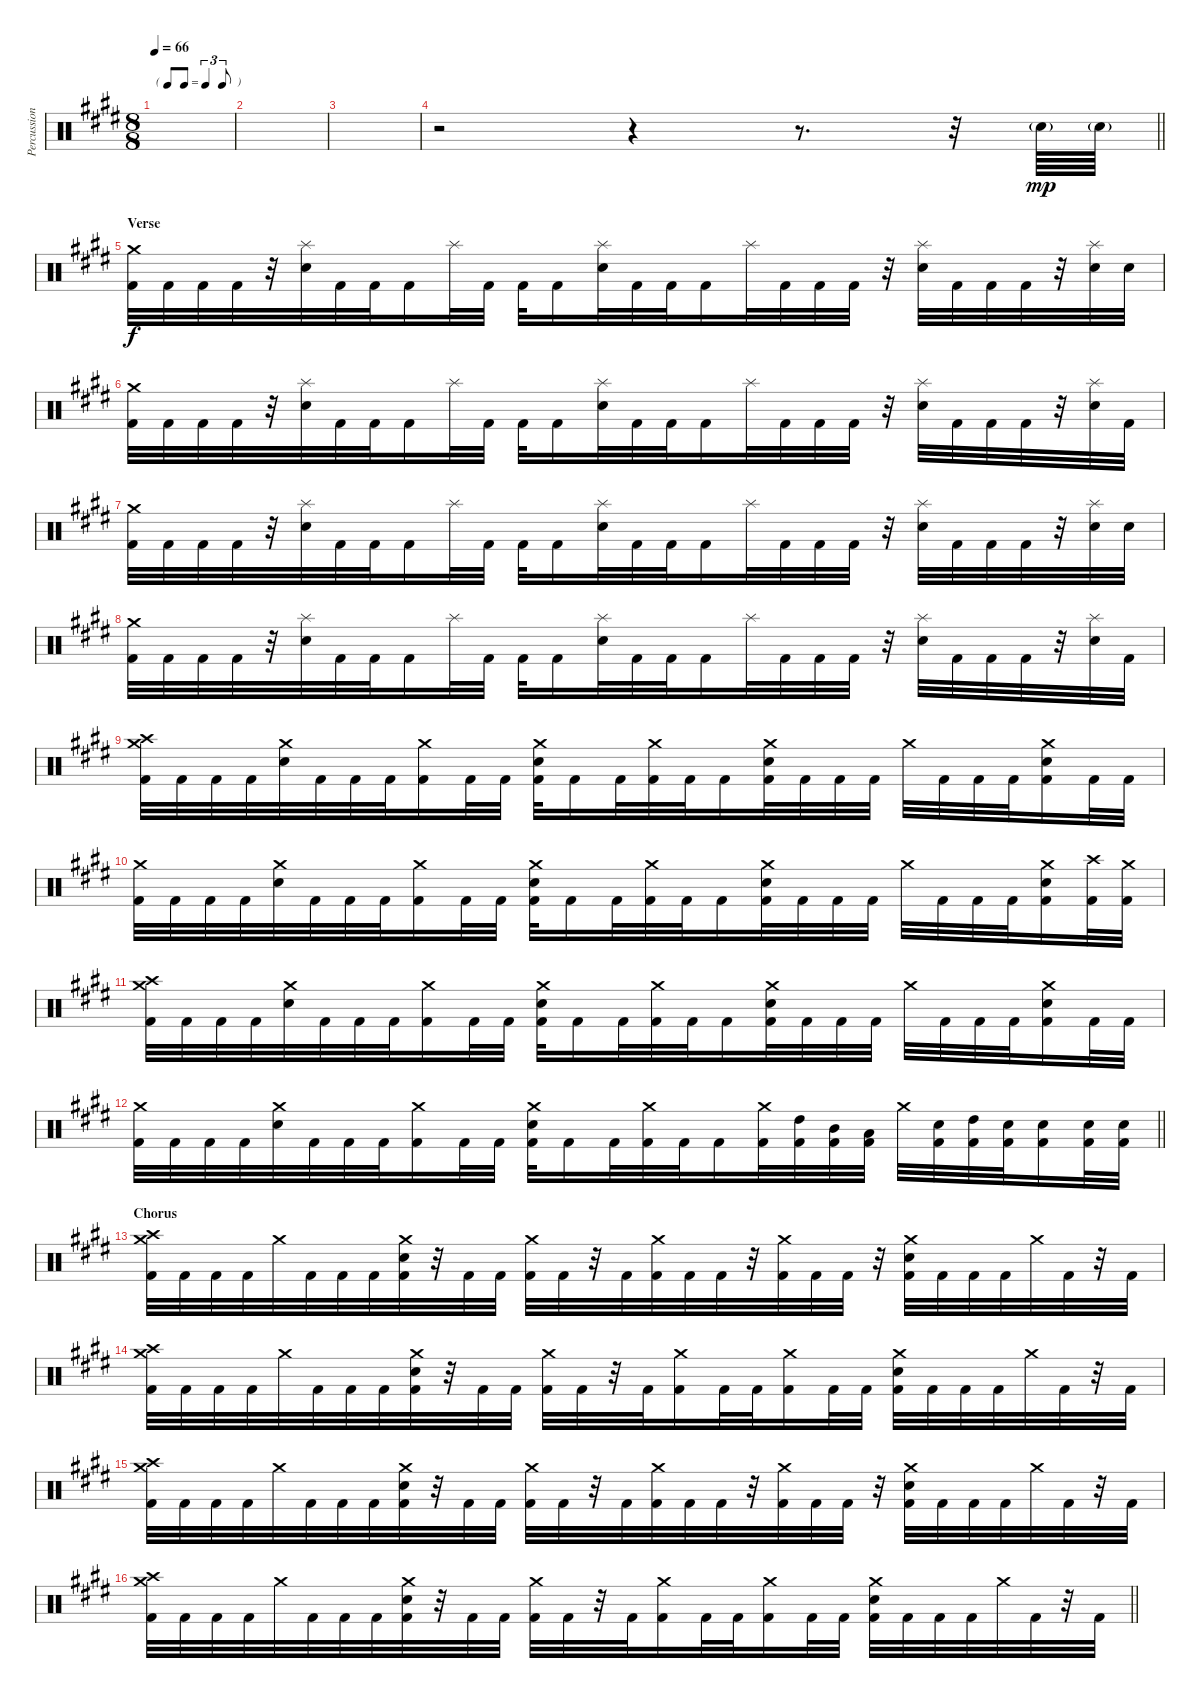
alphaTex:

\track ("Percussion" "Percussion") {instrument percussion}
\staff {score}
\articulation defaults
\ts (8 8)
\tf triplet8th
\tempo 66
\clef neutral
\ks c#minor
|
|
|
\barLineRight lightlight
r.2 r.4 r.8{d} r.32 "Electric Snare (hit)"{g}.64{dy mp} "Electric Snare (hit)"{g}.64 |
\section ("" "Verse")
("Crash medium (hit)" "Kick (hit) 2").32{dy f} "Kick (hit) 2".32 "Kick (hit) 2".32 "Kick (hit) 2".32 r.32 ("Splash (hit)" "Electric Snare (hit)").32 "Kick (hit) 2".32 "Kick (hit) 2".32 "Kick (hit) 2".16 "Splash (hit)".32 "Kick (hit) 2".32 "Kick (hit) 2".32 "Kick (hit) 2".16 ("Splash (hit)" "Electric Snare (hit)").32 "Kick (hit) 2".32 "Kick (hit) 2".32 "Kick (hit) 2".16 "Splash (hit)".32 "Kick (hit) 2".32 "Kick (hit) 2".32 "Kick (hit) 2".32 r.32 ("Splash (hit)" "Electric Snare (hit)").32 "Kick (hit) 2".32 "Kick (hit) 2".32 "Kick (hit) 2".32 r.32 ("Splash (hit)" "Electric Snare (hit)").32 "Electric Snare (hit)".32 |
("Crash medium (hit)" "Kick (hit) 2").32 "Kick (hit) 2".32 "Kick (hit) 2".32 "Kick (hit) 2".32 r.32 ("Splash (hit)" "Electric Snare (hit)").32 "Kick (hit) 2".32 "Kick (hit) 2".32 "Kick (hit) 2".16 "Splash (hit)".32 "Kick (hit) 2".32 "Kick (hit) 2".32 "Kick (hit) 2".16 ("Splash (hit)" "Electric Snare (hit)").32 "Kick (hit) 2".32 "Kick (hit) 2".32 "Kick (hit) 2".16 "Splash (hit)".32 "Kick (hit) 2".32 "Kick (hit) 2".32 "Kick (hit) 2".32 r.32 ("Splash (hit)" "Electric Snare (hit)").32 "Kick (hit) 2".32 "Kick (hit) 2".32 "Kick (hit) 2".32 r.32 ("Splash (hit)" "Electric Snare (hit)").32 "Kick (hit) 2".32 |
("Crash medium (hit)" "Kick (hit) 2").32 "Kick (hit) 2".32 "Kick (hit) 2".32 "Kick (hit) 2".32 r.32 ("Splash (hit)" "Electric Snare (hit)").32 "Kick (hit) 2".32 "Kick (hit) 2".32 "Kick (hit) 2".16 "Splash (hit)".32 "Kick (hit) 2".32 "Kick (hit) 2".32 "Kick (hit) 2".16 ("Splash (hit)" "Electric Snare (hit)").32 "Kick (hit) 2".32 "Kick (hit) 2".32 "Kick (hit) 2".16 "Splash (hit)".32 "Kick (hit) 2".32 "Kick (hit) 2".32 "Kick (hit) 2".32 r.32 ("Splash (hit)" "Electric Snare (hit)").32 "Kick (hit) 2".32 "Kick (hit) 2".32 "Kick (hit) 2".32 r.32 ("Splash (hit)" "Electric Snare (hit)").32 "Electric Snare (hit)".32 |
("Crash medium (hit)" "Kick (hit) 2").32 "Kick (hit) 2".32 "Kick (hit) 2".32 "Kick (hit) 2".32 r.32 ("Splash (hit)" "Electric Snare (hit)").32 "Kick (hit) 2".32 "Kick (hit) 2".32 "Kick (hit) 2".16 "Splash (hit)".32 "Kick (hit) 2".32 "Kick (hit) 2".32 "Kick (hit) 2".16 ("Splash (hit)" "Electric Snare (hit)").32 "Kick (hit) 2".32 "Kick (hit) 2".32 "Kick (hit) 2".16 "Splash (hit)".32 "Kick (hit) 2".32 "Kick (hit) 2".32 "Kick (hit) 2".32 r.32 ("Splash (hit)" "Electric Snare (hit)").32 "Kick (hit) 2".32 "Kick (hit) 2".32 "Kick (hit) 2".32 r.32 ("Splash (hit)" "Electric Snare (hit)").32 "Kick (hit) 2".32 |
("Crash medium (hit)" "Crash high (hit)" "Kick (hit) 2").32 "Kick (hit) 2".32 "Kick (hit) 2".32 "Kick (hit) 2".32 ("Crash medium (hit)" "Electric Snare (hit)").32 "Kick (hit) 2".32 "Kick (hit) 2".32 "Kick (hit) 2".32 ("Crash medium (hit)" "Kick (hit) 2").16 "Kick (hit) 2".32 "Kick (hit) 2".32 ("Crash medium (hit)" "Electric Snare (hit)" "Kick (hit) 2").32 "Kick (hit) 2".16 "Kick (hit) 2".32 ("Crash medium (hit)" "Kick (hit) 2").32 "Kick (hit) 2".32 "Kick (hit) 2".16 ("Crash medium (hit)" "Electric Snare (hit)" "Kick (hit) 2").32 "Kick (hit) 2".32 "Kick (hit) 2".32 "Kick (hit) 2".32 "Crash medium (hit)".32 "Kick (hit) 2".32 "Kick (hit) 2".32 "Kick (hit) 2".32 ("Crash medium (hit)" "Electric Snare (hit)" "Kick (hit) 2").16 "Kick (hit) 2".32 "Kick (hit) 2".32 |
("Crash medium (hit)" "Kick (hit) 2").32 "Kick (hit) 2".32 "Kick (hit) 2".32 "Kick (hit) 2".32 ("Crash medium (hit)" "Electric Snare (hit)").32 "Kick (hit) 2".32 "Kick (hit) 2".32 "Kick (hit) 2".32 ("Crash medium (hit)" "Kick (hit) 2").16 "Kick (hit) 2".32 "Kick (hit) 2".32 ("Crash medium (hit)" "Electric Snare (hit)" "Kick (hit) 2").32 "Kick (hit) 2".16 "Kick (hit) 2".32 ("Crash medium (hit)" "Kick (hit) 2").32 "Kick (hit) 2".32 "Kick (hit) 2".16 ("Crash medium (hit)" "Electric Snare (hit)" "Kick (hit) 2").32 "Kick (hit) 2".32 "Kick (hit) 2".32 "Kick (hit) 2".32 "Crash medium (hit)".32 "Kick (hit) 2".32 "Kick (hit) 2".32 "Kick (hit) 2".32 ("Crash medium (hit)" "Electric Snare (hit)" "Kick (hit) 2").16 ("Crash high (hit)" "Kick (hit) 2").32 ("Crash medium (hit)" "Kick (hit) 2").32 |
("Crash medium (hit)" "Crash high (hit)" "Kick (hit) 2").32 "Kick (hit) 2".32 "Kick (hit) 2".32 "Kick (hit) 2".32 ("Crash medium (hit)" "Electric Snare (hit)").32 "Kick (hit) 2".32 "Kick (hit) 2".32 "Kick (hit) 2".32 ("Crash medium (hit)" "Kick (hit) 2").16 "Kick (hit) 2".32 "Kick (hit) 2".32 ("Crash medium (hit)" "Electric Snare (hit)" "Kick (hit) 2").32 "Kick (hit) 2".16 "Kick (hit) 2".32 ("Crash medium (hit)" "Kick (hit) 2").32 "Kick (hit) 2".32 "Kick (hit) 2".16 ("Crash medium (hit)" "Electric Snare (hit)" "Kick (hit) 2").32 "Kick (hit) 2".32 "Kick (hit) 2".32 "Kick (hit) 2".32 "Crash medium (hit)".32 "Kick (hit) 2".32 "Kick (hit) 2".32 "Kick (hit) 2".32 ("Crash medium (hit)" "Electric Snare (hit)" "Kick (hit) 2").16 "Kick (hit) 2".32 "Kick (hit) 2".32 |
\barLineRight lightlight
("Crash medium (hit)" "Kick (hit) 2").32 "Kick (hit) 2".32 "Kick (hit) 2".32 "Kick (hit) 2".32 ("Crash medium (hit)" "Electric Snare (hit)").32 "Kick (hit) 2".32 "Kick (hit) 2".32 "Kick (hit) 2".32 ("Crash medium (hit)" "Kick (hit) 2").16 "Kick (hit) 2".32 "Kick (hit) 2".32 ("Crash medium (hit)" "Electric Snare (hit)" "Kick (hit) 2").32 "Kick (hit) 2".16 "Kick (hit) 2".32 ("Crash medium (hit)" "Kick (hit) 2").32 "Kick (hit) 2".32 "Kick (hit) 2".16 ("Crash medium (hit)" "Kick (hit) 2").32 ("High Tom (hit)" "Kick (hit) 2").32 ("Mid Tom (hit)" "Kick (hit) 2").32 ("Low Tom (hit)" "Kick (hit) 2").32 "Crash medium (hit)".32 ("Electric Snare (hit)" "Kick (hit) 2").32 ("High Tom (hit)" "Kick (hit) 2").32 ("Electric Snare (hit)" "Kick (hit) 2").32 ("Electric Snare (hit)" "Kick (hit) 2").16 ("Electric Snare (hit)" "Kick (hit) 2").32 ("Electric Snare (hit)" "Kick (hit) 2").32 |
\section ("" "Chorus")
("Crash medium (hit)" "Crash high (hit)" "Kick (hit) 2").32 "Kick (hit) 2".32 "Kick (hit) 2".32 "Kick (hit) 2".32 "Crash medium (hit)".32 "Kick (hit) 2".32 "Kick (hit) 2".32 "Kick (hit) 2".32 ("Crash medium (hit)" "Electric Snare (hit)" "Kick (hit) 2").32 r.32 "Kick (hit) 2".32 "Kick (hit) 2".32 ("Crash medium (hit)" "Kick (hit) 2").32 "Kick (hit) 2".32 r.32 "Kick (hit) 2".32 ("Crash medium (hit)" "Kick (hit) 2").32 "Kick (hit) 2".32 "Kick (hit) 2".32 r.32 ("Crash medium (hit)" "Kick (hit) 2").32 "Kick (hit) 2".32 "Kick (hit) 2".32 r.32 ("Crash medium (hit)" "Electric Snare (hit)" "Kick (hit) 2").32 "Kick (hit) 2".32 "Kick (hit) 2".32 "Kick (hit) 2".32 "Crash medium (hit)".32 "Kick (hit) 2".32 r.32 "Kick (hit) 2".32 |
("Crash medium (hit)" "Crash high (hit)" "Kick (hit) 2").32 "Kick (hit) 2".32 "Kick (hit) 2".32 "Kick (hit) 2".32 "Crash medium (hit)".32 "Kick (hit) 2".32 "Kick (hit) 2".32 "Kick (hit) 2".32 ("Crash medium (hit)" "Electric Snare (hit)" "Kick (hit) 2").32 r.32 "Kick (hit) 2".32 "Kick (hit) 2".32 ("Crash medium (hit)" "Kick (hit) 2").32 "Kick (hit) 2".32 r.32 "Kick (hit) 2".32 ("Crash medium (hit)" "Kick (hit) 2").16 "Kick (hit) 2".32 "Kick (hit) 2".32 ("Crash medium (hit)" "Kick (hit) 2").16 "Kick (hit) 2".32 "Kick (hit) 2".32 ("Crash medium (hit)" "Electric Snare (hit)" "Kick (hit) 2").32 "Kick (hit) 2".32 "Kick (hit) 2".32 "Kick (hit) 2".32 "Crash medium (hit)".32 "Kick (hit) 2".32 r.32 "Kick (hit) 2".32 |
("Crash medium (hit)" "Crash high (hit)" "Kick (hit) 2").32 "Kick (hit) 2".32 "Kick (hit) 2".32 "Kick (hit) 2".32 "Crash medium (hit)".32 "Kick (hit) 2".32 "Kick (hit) 2".32 "Kick (hit) 2".32 ("Crash medium (hit)" "Electric Snare (hit)" "Kick (hit) 2").32 r.32 "Kick (hit) 2".32 "Kick (hit) 2".32 ("Crash medium (hit)" "Kick (hit) 2").32 "Kick (hit) 2".32 r.32 "Kick (hit) 2".32 ("Crash medium (hit)" "Kick (hit) 2").32 "Kick (hit) 2".32 "Kick (hit) 2".32 r.32 ("Crash medium (hit)" "Kick (hit) 2").32 "Kick (hit) 2".32 "Kick (hit) 2".32 r.32 ("Crash medium (hit)" "Electric Snare (hit)" "Kick (hit) 2").32 "Kick (hit) 2".32 "Kick (hit) 2".32 "Kick (hit) 2".32 "Crash medium (hit)".32 "Kick (hit) 2".32 r.32 "Kick (hit) 2".32 |
\barLineRight lightlight
("Crash medium (hit)" "Crash high (hit)" "Kick (hit) 2").32 "Kick (hit) 2".32 "Kick (hit) 2".32 "Kick (hit) 2".32 "Crash medium (hit)".32 "Kick (hit) 2".32 "Kick (hit) 2".32 "Kick (hit) 2".32 ("Crash medium (hit)" "Electric Snare (hit)" "Kick (hit) 2").32 r.32 "Kick (hit) 2".32 "Kick (hit) 2".32 ("Crash medium (hit)" "Kick (hit) 2").32 "Kick (hit) 2".32 r.32 "Kick (hit) 2".32 ("Crash medium (hit)" "Kick (hit) 2").16 "Kick (hit) 2".32 "Kick (hit) 2".32 ("Crash medium (hit)" "Kick (hit) 2").16 "Kick (hit) 2".32 "Kick (hit) 2".32 ("Crash medium (hit)" "Electric Snare (hit)" "Kick (hit) 2").32 "Kick (hit) 2".32 "Kick (hit) 2".32 "Kick (hit) 2".32 "Crash medium (hit)".32 "Kick (hit) 2".32 r.32 "Kick (hit) 2".32
